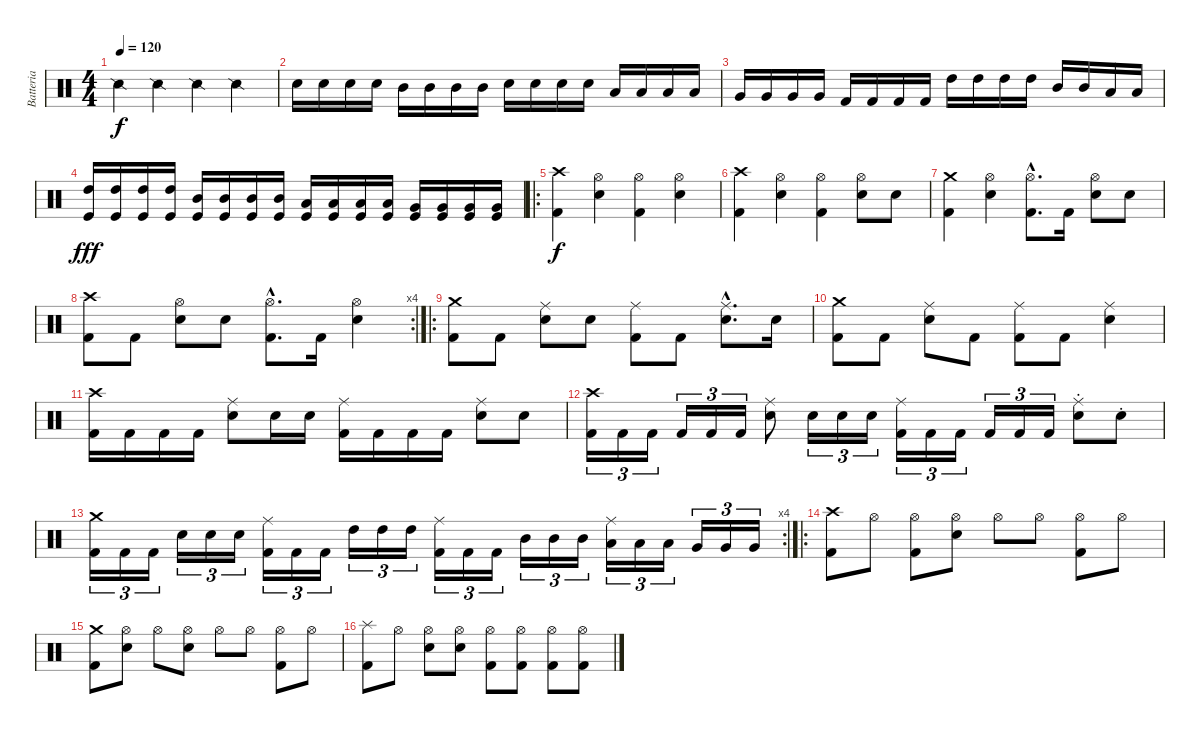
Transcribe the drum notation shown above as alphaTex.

\track ("Batteria" "Batteria") {instrument percussion}
\staff {score}
\articulation defaults
\ts (4 4)
\tempo 120
\clef neutral
\ks c "Snare (side stick) 2".4{dy f} "Snare (side stick) 2".4 "Snare (side stick) 2".4 "Snare (side stick) 2".4
|
"Snare (hit) 2".16 "Snare (hit) 2".16 "Snare (hit) 2".16 "Snare (hit) 2".16 "Mid Tom (hit)".16 "Mid Tom (hit)".16 "Mid Tom (hit)".16 "Mid Tom (hit)".16 "Snare (hit) 2".16 "Snare (hit) 2".16 "Snare (hit) 2".16 "Snare (hit) 2".16 "Low Tom (hit)".16 "Low Tom (hit)".16 "Low Tom (hit)".16 "Low Tom (hit)".16 |
"Very Low Tom (hit)".16 "Very Low Tom (hit)".16 "Very Low Tom (hit)".16 "Very Low Tom (hit)".16 "Kick (hit) 2".16 "Kick (hit) 2".16 "Kick (hit) 2".16 "Kick (hit) 2".16 "High Tom (hit)".16 "High Tom (hit)".16 "High Tom (hit)".16 "High Tom (hit)".16 "Mid Tom (hit)".16 "Mid Tom (hit)".16 "Low Tom (hit)".16 "Low Tom (hit)".16 |
("High Tom (hit)" "Kick (hit)").16{dy fff} ("High Tom (hit)" "Kick (hit)").16 ("High Tom (hit)" "Kick (hit)").16 ("High Tom (hit)" "Kick (hit)").16 ("Mid Tom (hit)" "Kick (hit)").16 ("Mid Tom (hit)" "Kick (hit)").16 ("Mid Tom (hit)" "Kick (hit)").16 ("Mid Tom (hit)" "Kick (hit)").16 ("Low Tom (hit)" "Kick (hit)").16 ("Low Tom (hit)" "Kick (hit)").16 ("Low Tom (hit)" "Kick (hit)").16 ("Low Tom (hit)" "Kick (hit)").16 ("Very Low Tom (hit)" "Kick (hit)").16 ("Very Low Tom (hit)" "Kick (hit)").16 ("Very Low Tom (hit)" "Kick (hit)").16 ("Very Low Tom (hit)" "Kick (hit)").16 |
\ro
("Crash high (hit)" "Kick (hit) 2").4{dy f} ("Hi-Hat (open)" "Electric Snare (hit)").4 ("Hi-Hat (open)" "Kick (hit) 2").4 ("Hi-Hat (open)" "Electric Snare (hit)").4 |
("Crash high (hit)" "Kick (hit) 2").4 ("Hi-Hat (open)" "Electric Snare (hit)").4 ("Hi-Hat (open)" "Kick (hit) 2").4 ("Hi-Hat (open)" "Electric Snare (hit)").8 "Electric Snare (hit)".8 |
("Crash medium (hit)" "Kick (hit) 2").4 ("Hi-Hat (open)" "Electric Snare (hit)").4 ("Hi-Hat (open)"{hac} "Kick (hit) 2"{hac}).8{d} "Kick (hit) 2".16 ("Hi-Hat (open)" "Electric Snare (hit)").8 "Electric Snare (hit)".8 |
\rc 4
("Crash high (hit)" "Kick (hit) 2").8 "Kick (hit) 2".8 ("Hi-Hat (open)" "Electric Snare (hit)").8 "Electric Snare (hit)".8 ("Hi-Hat (open)"{hac} "Kick (hit) 2"{hac}).8{d} "Kick (hit) 2".16 ("Hi-Hat (open)" "Electric Snare (hit)").4 |
\ro
("Crash medium (hit)" "Kick (hit) 2").8 "Kick (hit) 2".8 ("Ride (middle)" "Electric Snare (hit)").8 "Electric Snare (hit)".8 ("Ride (middle)" "Kick (hit) 2").8 "Kick (hit) 2".8 ("Ride (middle)"{hac} "Electric Snare (hit)"{hac}).8{d} "Electric Snare (hit)".16 |
("Crash medium (hit)" "Kick (hit) 2").8 "Kick (hit) 2".8 ("Ride (middle)" "Electric Snare (hit)").8 "Kick (hit) 2".8 ("Ride (middle)" "Kick (hit) 2").8 "Kick (hit) 2".8 ("Ride (middle)" "Electric Snare (hit)").4 |
("Crash high (hit)" "Kick (hit) 2").16 "Kick (hit) 2".16 "Kick (hit) 2".16 "Kick (hit) 2".16 ("Ride (middle)" "Electric Snare (hit)").8 "Electric Snare (hit)".16 "Electric Snare (hit)".16 ("Ride (middle)" "Kick (hit) 2").16 "Kick (hit) 2".16 "Kick (hit) 2".16 "Kick (hit) 2".16 ("Ride (middle)" "Electric Snare (hit)").8 "Electric Snare (hit)".8 |
("Crash high (hit)" "Kick (hit) 2").16{tu (3 2)} "Kick (hit) 2".16{tu (3 2)} "Kick (hit) 2".16{tu (3 2)} "Kick (hit) 2".16{tu (3 2)} "Kick (hit) 2".16{tu (3 2)} "Kick (hit) 2".16{tu (3 2)} ("Ride (middle)" "Electric Snare (hit)").8 "Electric Snare (hit)".16{tu (3 2)} "Electric Snare (hit)".16{tu (3 2)} "Electric Snare (hit)".16{tu (3 2)} ("Ride (middle)" "Kick (hit) 2").16{tu (3 2)} "Kick (hit) 2".16{tu (3 2)} "Kick (hit) 2".16{tu (3 2)} "Kick (hit) 2".16{tu (3 2)} "Kick (hit) 2".16{tu (3 2)} "Kick (hit) 2".16{tu (3 2)} ("Ride (middle)" "Electric Snare (hit)"{st}).8 "Electric Snare (hit)"{st}.8 |
\rc 4
("Crash medium (hit)" "Kick (hit) 2").16{tu (3 2)} "Kick (hit) 2".16{tu (3 2)} "Kick (hit) 2".16{tu (3 2)} "Electric Snare (hit)".16{tu (3 2)} "Electric Snare (hit)".16{tu (3 2)} "Electric Snare (hit)".16{tu (3 2)} ("Ride (middle)" "Kick (hit) 2").16{tu (3 2)} "Kick (hit) 2".16{tu (3 2)} "Kick (hit) 2".16{tu (3 2)} "High Tom (hit)".16{tu (3 2)} "High Tom (hit)".16{tu (3 2)} "High Tom (hit)".16{tu (3 2)} ("Ride (middle)" "Kick (hit) 2").16{tu (3 2)} "Kick (hit) 2".16{tu (3 2)} "Kick (hit) 2".16{tu (3 2)} "Mid Tom (hit)".16{tu (3 2)} "Mid Tom (hit)".16{tu (3 2)} "Mid Tom (hit)".16{tu (3 2)} ("Ride (middle)" "Low Tom (hit)").16{tu (3 2)} "Low Tom (hit)".16{tu (3 2)} "Low Tom (hit)".16{tu (3 2)} "Very Low Tom (hit)".16{tu (3 2)} "Very Low Tom (hit)".16{tu (3 2)} "Very Low Tom (hit)".16{tu (3 2)} |
\ro
("Crash high (hit)" "Kick (hit) 2").8 "Hi-Hat (open)".8 ("Hi-Hat (open)" "Kick (hit) 2").8 ("Hi-Hat (open)" "Electric Snare (hit)").8 "Hi-Hat (open)".8 "Hi-Hat (open)".8 ("Hi-Hat (open)" "Kick (hit) 2").8 "Hi-Hat (open)".8 |
("Crash medium (hit)" "Kick (hit) 2").8 ("Hi-Hat (open)" "Electric Snare (hit)").8 "Hi-Hat (open)".8 ("Hi-Hat (open)" "Electric Snare (hit)").8 "Hi-Hat (open)".8 "Hi-Hat (open)".8 ("Hi-Hat (open)" "Kick (hit) 2").8 "Hi-Hat (open)".8 |
("Splash (hit)" "Kick (hit) 2").8 "Hi-Hat (open)".8 ("Hi-Hat (open)" "Electric Snare (hit)").8 ("Hi-Hat (open)" "Electric Snare (hit)").8 ("Hi-Hat (open)" "Kick (hit) 2").8 ("Hi-Hat (open)" "Kick (hit) 2").8 ("Hi-Hat (open)" "Kick (hit) 2").8 ("Hi-Hat (open)" "Kick (hit) 2").8
